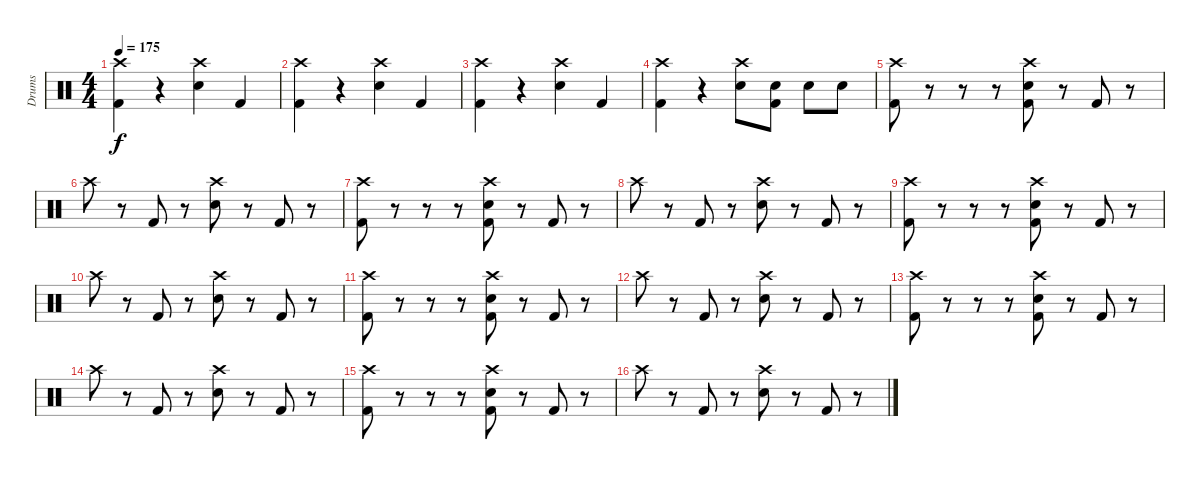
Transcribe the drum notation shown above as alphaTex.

\track ("Drums" "Drums") {instrument percussion}
\staff {score}
\articulation defaults
\ts (4 4)
\tempo 175
\clef neutral
\ks c
("Crash high (hit)" "Kick (hit) 2").4{dy f} r.4 ("Crash high (hit)" "Electric Snare (hit)").4 "Kick (hit) 2".4 |
("Crash high (hit)" "Kick (hit) 2").4 r.4 ("Crash high (hit)" "Electric Snare (hit)").4 "Kick (hit) 2".4 |
("Crash high (hit)" "Kick (hit) 2").4 r.4 ("Crash high (hit)" "Electric Snare (hit)").4 "Kick (hit) 2".4 |
("Crash high (hit)" "Kick (hit) 2").4 r.4 ("Crash high (hit)" "Electric Snare (hit)").8 ("Electric Snare (hit)" "Kick (hit) 2").8 "Electric Snare (hit)".8 "Electric Snare (hit)".8 |
("Crash high (hit)" "Kick (hit) 2").8 r.8 r.8 r.8 ("Crash high (hit)" "Electric Snare (hit)" "Kick (hit) 2").8 r.8 "Kick (hit) 2".8 r.8 |
"Crash high (hit)".8 r.8 "Kick (hit) 2".8 r.8 ("Crash high (hit)" "Electric Snare (hit)").8 r.8 "Kick (hit) 2".8 r.8 |
("Crash high (hit)" "Kick (hit) 2").8 r.8 r.8 r.8 ("Crash high (hit)" "Electric Snare (hit)" "Kick (hit) 2").8 r.8 "Kick (hit) 2".8 r.8 |
"Crash high (hit)".8 r.8 "Kick (hit) 2".8 r.8 ("Crash high (hit)" "Electric Snare (hit)").8 r.8 "Kick (hit) 2".8 r.8 |
("Crash high (hit)" "Kick (hit) 2").8 r.8 r.8 r.8 ("Crash high (hit)" "Electric Snare (hit)" "Kick (hit) 2").8 r.8 "Kick (hit) 2".8 r.8 |
"Crash high (hit)".8 r.8 "Kick (hit) 2".8 r.8 ("Crash high (hit)" "Electric Snare (hit)").8 r.8 "Kick (hit) 2".8 r.8 |
("Crash high (hit)" "Kick (hit) 2").8 r.8 r.8 r.8 ("Crash high (hit)" "Electric Snare (hit)" "Kick (hit) 2").8 r.8 "Kick (hit) 2".8 r.8 |
"Crash high (hit)".8 r.8 "Kick (hit) 2".8 r.8 ("Crash high (hit)" "Electric Snare (hit)").8 r.8 "Kick (hit) 2".8 r.8 |
("Crash high (hit)" "Kick (hit) 2").8 r.8 r.8 r.8 ("Crash high (hit)" "Electric Snare (hit)" "Kick (hit) 2").8 r.8 "Kick (hit) 2".8 r.8 |
"Crash high (hit)".8 r.8 "Kick (hit) 2".8 r.8 ("Crash high (hit)" "Electric Snare (hit)").8 r.8 "Kick (hit) 2".8 r.8 |
("Crash high (hit)" "Kick (hit) 2").8 r.8 r.8 r.8 ("Crash high (hit)" "Electric Snare (hit)" "Kick (hit) 2").8 r.8 "Kick (hit) 2".8 r.8 |
"Crash high (hit)".8 r.8 "Kick (hit) 2".8 r.8 ("Crash high (hit)" "Electric Snare (hit)").8 r.8 "Kick (hit) 2".8 r.8
